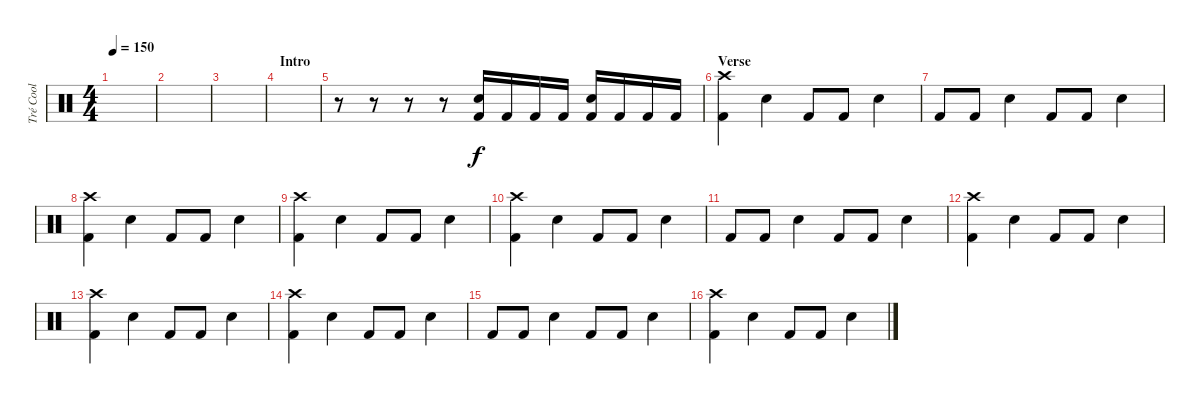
\track ("Tré Cool" "Tré Cool") {instrument percussion}
\staff {score}
\articulation defaults
\ts (4 4)
\section ("" "")
\tempo 150
\clef neutral
\ks c
|
|
|
\section ("" "Intro")
|
r.8 r.8 r.8 r.8 ("Kick (hit) 2" "Snare (hit) 2").16 "Kick (hit) 2".16 "Kick (hit) 2".16 "Kick (hit) 2".16 ("Kick (hit) 2" "Snare (hit) 2").16 "Kick (hit) 2".16 "Kick (hit) 2".16 "Kick (hit) 2".16 |
\section ("" "Verse")
("Kick (hit) 2" "Crash high (hit)").4 "Snare (hit) 2".4 "Kick (hit) 2".8 "Kick (hit) 2".8 "Snare (hit) 2".4 |
"Kick (hit) 2".8 "Kick (hit) 2".8 "Snare (hit) 2".4 "Kick (hit) 2".8 "Kick (hit) 2".8 "Snare (hit) 2".4 |
("Kick (hit) 2" "Crash high (hit)").4 "Snare (hit) 2".4 "Kick (hit) 2".8 "Kick (hit) 2".8 "Snare (hit) 2".4 |
("Kick (hit) 2" "Crash high (hit)").4 "Snare (hit) 2".4 "Kick (hit) 2".8 "Kick (hit) 2".8 "Snare (hit) 2".4 |
\section ("" "")
("Kick (hit) 2" "Crash high (hit)").4 "Snare (hit) 2".4 "Kick (hit) 2".8 "Kick (hit) 2".8 "Snare (hit) 2".4 |
"Kick (hit) 2".8 "Kick (hit) 2".8 "Snare (hit) 2".4 "Kick (hit) 2".8 "Kick (hit) 2".8 "Snare (hit) 2".4 |
("Kick (hit) 2" "Crash high (hit)").4 "Snare (hit) 2".4 "Kick (hit) 2".8 "Kick (hit) 2".8 "Snare (hit) 2".4 |
("Kick (hit) 2" "Crash high (hit)").4 "Snare (hit) 2".4 "Kick (hit) 2".8 "Kick (hit) 2".8 "Snare (hit) 2".4 |
\section ("" "")
("Kick (hit) 2" "Crash high (hit)").4 "Snare (hit) 2".4 "Kick (hit) 2".8 "Kick (hit) 2".8 "Snare (hit) 2".4 |
"Kick (hit) 2".8 "Kick (hit) 2".8 "Snare (hit) 2".4 "Kick (hit) 2".8 "Kick (hit) 2".8 "Snare (hit) 2".4 |
("Kick (hit) 2" "Crash high (hit)").4 "Snare (hit) 2".4 "Kick (hit) 2".8 "Kick (hit) 2".8 "Snare (hit) 2".4
